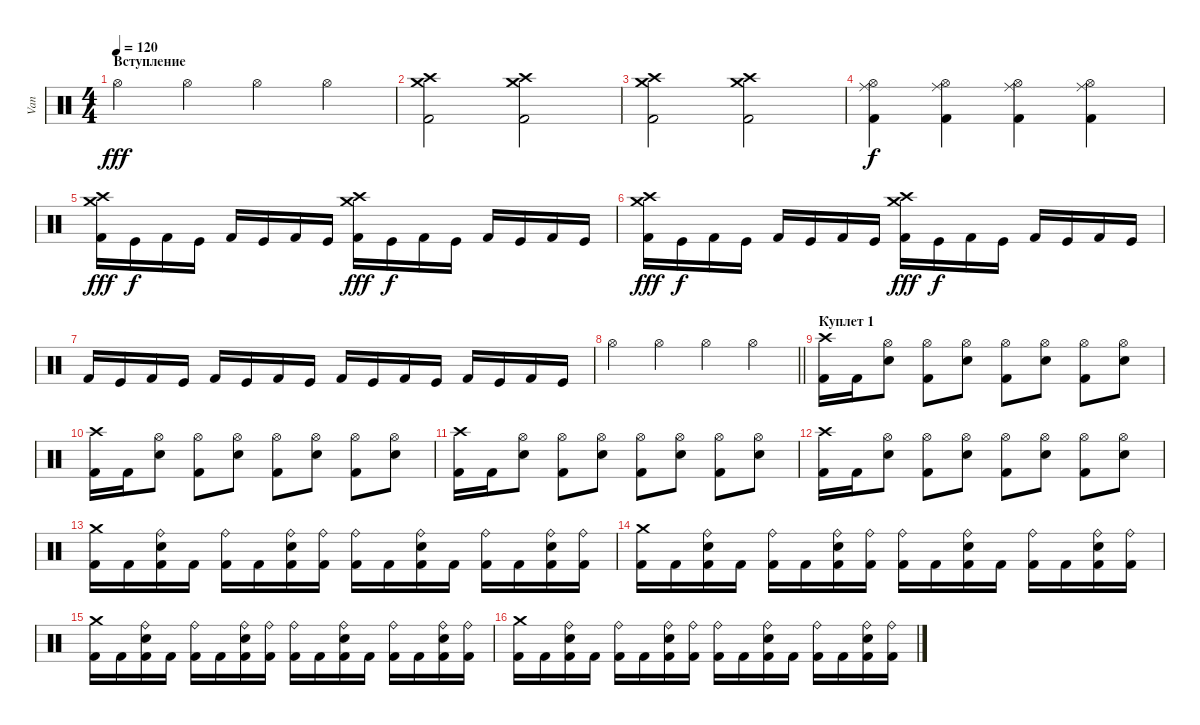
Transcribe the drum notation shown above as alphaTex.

\track ("Van" "Van") {instrument percussion}
\staff {score}
\articulation defaults
\ts (4 4)
\section ("" "Вступление")
\tempo 120
\clef neutral
\ks c "Hi-Hat (open)".4{dy fff} "Hi-Hat (open)".4 "Hi-Hat (open)".4 "Hi-Hat (open)".4
|
("Crash medium (hit)" "Crash high (hit)" "Kick (hit) 2").2 ("Crash medium (hit)" "Crash high (hit)" "Kick (hit) 2").2 |
("Crash medium (hit)" "Crash high (hit)" "Kick (hit) 2").2 ("Crash medium (hit)" "Crash high (hit)" "Kick (hit) 2").2 |
("Ride (middle)" "Hi-Hat (open)" "Kick (hit) 2").4{dy f} ("Ride (middle)" "Hi-Hat (open)" "Kick (hit) 2").4 ("Ride (middle)" "Hi-Hat (open)" "Kick (hit) 2").4 ("Ride (middle)" "Hi-Hat (open)" "Kick (hit) 2").4 |
("Crash medium (hit)" "Crash high (hit)" "Kick (hit) 2").16{dy fff} "Kick (hit)".16{dy f} "Kick (hit) 2".16 "Kick (hit)".16 "Kick (hit) 2".16 "Kick (hit)".16 "Kick (hit) 2".16 "Kick (hit)".16 ("Crash medium (hit)" "Crash high (hit)" "Kick (hit) 2").16{dy fff} "Kick (hit)".16{dy f} "Kick (hit) 2".16 "Kick (hit)".16 "Kick (hit) 2".16 "Kick (hit)".16 "Kick (hit) 2".16 "Kick (hit)".16 |
("Crash medium (hit)" "Crash high (hit)" "Kick (hit) 2").16{dy fff} "Kick (hit)".16{dy f} "Kick (hit) 2".16 "Kick (hit)".16 "Kick (hit) 2".16 "Kick (hit)".16 "Kick (hit) 2".16 "Kick (hit)".16 ("Crash medium (hit)" "Crash high (hit)" "Kick (hit) 2").16{dy fff} "Kick (hit)".16{dy f} "Kick (hit) 2".16 "Kick (hit)".16 "Kick (hit) 2".16 "Kick (hit)".16 "Kick (hit) 2".16 "Kick (hit)".16 |
"Kick (hit) 2".16 "Kick (hit)".16 "Kick (hit) 2".16 "Kick (hit)".16 "Kick (hit) 2".16 "Kick (hit)".16 "Kick (hit) 2".16 "Kick (hit)".16 "Kick (hit) 2".16 "Kick (hit)".16 "Kick (hit) 2".16 "Kick (hit)".16 "Kick (hit) 2".16 "Kick (hit)".16 "Kick (hit) 2".16 "Kick (hit)".16 |
\barLineRight lightlight "Hi-Hat (open)".4 "Hi-Hat (open)".4 "Hi-Hat (open)".4 "Hi-Hat (open)".4
|
\section ("" "Куплет 1")
("Crash high (hit)" "Kick (hit) 2").16 "Kick (hit) 2".16 ("Hi-Hat (open)" "Electric Snare (hit)").8 ("Hi-Hat (open)" "Kick (hit) 2").8 ("Hi-Hat (open)" "Electric Snare (hit)").8 ("Hi-Hat (open)" "Kick (hit) 2").8 ("Hi-Hat (open)" "Electric Snare (hit)").8 ("Hi-Hat (open)" "Kick (hit) 2").8 ("Hi-Hat (open)" "Electric Snare (hit)").8 |
("Crash high (hit)" "Kick (hit) 2").16 "Kick (hit) 2".16 ("Hi-Hat (open)" "Electric Snare (hit)").8 ("Hi-Hat (open)" "Kick (hit) 2").8 ("Hi-Hat (open)" "Electric Snare (hit)").8 ("Hi-Hat (open)" "Kick (hit) 2").8 ("Hi-Hat (open)" "Electric Snare (hit)").8 ("Hi-Hat (open)" "Kick (hit) 2").8 ("Hi-Hat (open)" "Electric Snare (hit)").8 |
("Crash high (hit)" "Kick (hit) 2").16 "Kick (hit) 2".16 ("Hi-Hat (open)" "Electric Snare (hit)").8 ("Hi-Hat (open)" "Kick (hit) 2").8 ("Hi-Hat (open)" "Electric Snare (hit)").8 ("Hi-Hat (open)" "Kick (hit) 2").8 ("Hi-Hat (open)" "Electric Snare (hit)").8 ("Hi-Hat (open)" "Kick (hit) 2").8 ("Hi-Hat (open)" "Electric Snare (hit)").8 |
("Crash high (hit)" "Kick (hit) 2").16 "Kick (hit) 2".16 ("Hi-Hat (open)" "Electric Snare (hit)").8 ("Hi-Hat (open)" "Kick (hit) 2").8 ("Hi-Hat (open)" "Electric Snare (hit)").8 ("Hi-Hat (open)" "Kick (hit) 2").8 ("Hi-Hat (open)" "Electric Snare (hit)").8 ("Hi-Hat (open)" "Kick (hit) 2").8 ("Hi-Hat (open)" "Electric Snare (hit)").8 |
("Crash medium (hit)" "Kick (hit) 2").16 "Kick (hit) 2".16 ("Ride (bell)" "Electric Snare (hit)" "Kick (hit) 2").16 "Kick (hit) 2".16 ("Ride (bell)" "Kick (hit) 2").16 "Kick (hit) 2".16 ("Ride (bell)" "Electric Snare (hit)" "Kick (hit) 2").16 ("Ride (bell)" "Kick (hit) 2").16 ("Ride (bell)" "Kick (hit) 2").16 "Kick (hit) 2".16 ("Ride (bell)" "Electric Snare (hit)" "Kick (hit) 2").16 "Kick (hit) 2".16 ("Ride (bell)" "Kick (hit) 2").16 "Kick (hit) 2".16 ("Ride (bell)" "Electric Snare (hit)" "Kick (hit) 2").16 ("Ride (bell)" "Kick (hit) 2").16 |
("Crash medium (hit)" "Kick (hit) 2").16 "Kick (hit) 2".16 ("Ride (bell)" "Electric Snare (hit)" "Kick (hit) 2").16 "Kick (hit) 2".16 ("Ride (bell)" "Kick (hit) 2").16 "Kick (hit) 2".16 ("Ride (bell)" "Electric Snare (hit)" "Kick (hit) 2").16 ("Ride (bell)" "Kick (hit) 2").16 ("Ride (bell)" "Kick (hit) 2").16 "Kick (hit) 2".16 ("Ride (bell)" "Electric Snare (hit)" "Kick (hit) 2").16 "Kick (hit) 2".16 ("Ride (bell)" "Kick (hit) 2").16 "Kick (hit) 2".16 ("Ride (bell)" "Electric Snare (hit)" "Kick (hit) 2").16 ("Ride (bell)" "Kick (hit) 2").16 |
("Crash medium (hit)" "Kick (hit) 2").16 "Kick (hit) 2".16 ("Ride (bell)" "Electric Snare (hit)" "Kick (hit) 2").16 "Kick (hit) 2".16 ("Ride (bell)" "Kick (hit) 2").16 "Kick (hit) 2".16 ("Ride (bell)" "Electric Snare (hit)" "Kick (hit) 2").16 ("Ride (bell)" "Kick (hit) 2").16 ("Ride (bell)" "Kick (hit) 2").16 "Kick (hit) 2".16 ("Ride (bell)" "Electric Snare (hit)" "Kick (hit) 2").16 "Kick (hit) 2".16 ("Ride (bell)" "Kick (hit) 2").16 "Kick (hit) 2".16 ("Ride (bell)" "Electric Snare (hit)" "Kick (hit) 2").16 ("Ride (bell)" "Kick (hit) 2").16 |
("Crash medium (hit)" "Kick (hit) 2").16 "Kick (hit) 2".16 ("Ride (bell)" "Electric Snare (hit)" "Kick (hit) 2").16 "Kick (hit) 2".16 ("Ride (bell)" "Kick (hit) 2").16 "Kick (hit) 2".16 ("Ride (bell)" "Electric Snare (hit)" "Kick (hit) 2").16 ("Ride (bell)" "Kick (hit) 2").16 ("Ride (bell)" "Kick (hit) 2").16 "Kick (hit) 2".16 ("Ride (bell)" "Electric Snare (hit)" "Kick (hit) 2").16 "Kick (hit) 2".16 ("Ride (bell)" "Kick (hit) 2").16 "Kick (hit) 2".16 ("Ride (bell)" "Electric Snare (hit)" "Kick (hit) 2").16 ("Ride (bell)" "Kick (hit) 2").16
